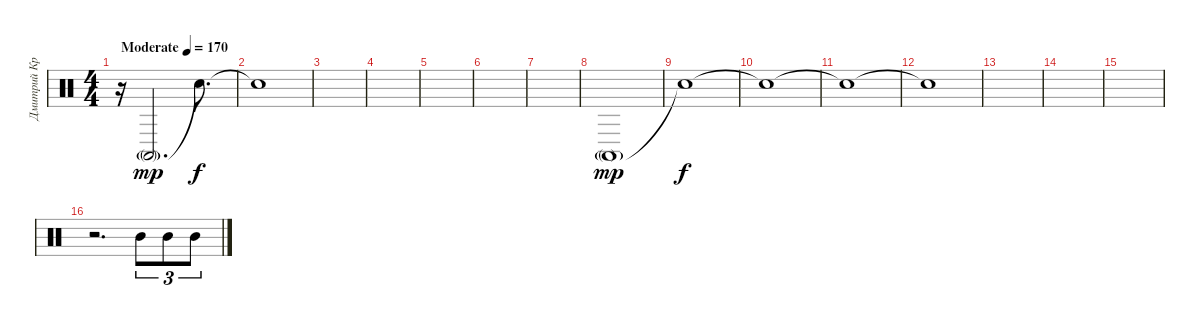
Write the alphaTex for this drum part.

\track ("Дмитрий Кривенков" "Дмитрий Кр") {instrument percussion}
\staff {score}
\articulation defaults
\ts (4 4)
\tempo (170 "Moderate")
\clef neutral
\ks c
r.16{dy mp volume 0} "Conga high (mute)"{g}.2{d volume 14} "Snare (hit)"{t}.8{d dy f} |
"Snare (hit)"{t}.1 |
|
|
|
|
|
"Conga high (mute)"{g}.1{dy mp volume 14} |
"Snare (hit)"{t}.1{dy f} |
"Snare (hit)"{t}.1 |
"Snare (hit)"{t}.1{volume 0} |
"Snare (hit)"{t}.1 |
|
|
|
r.2{d volume 14} "Mid Tom (hit)".8{tu (3 2)} "Mid Tom (hit)".8{tu (3 2)} "Mid Tom (hit)".8{tu (3 2)}
